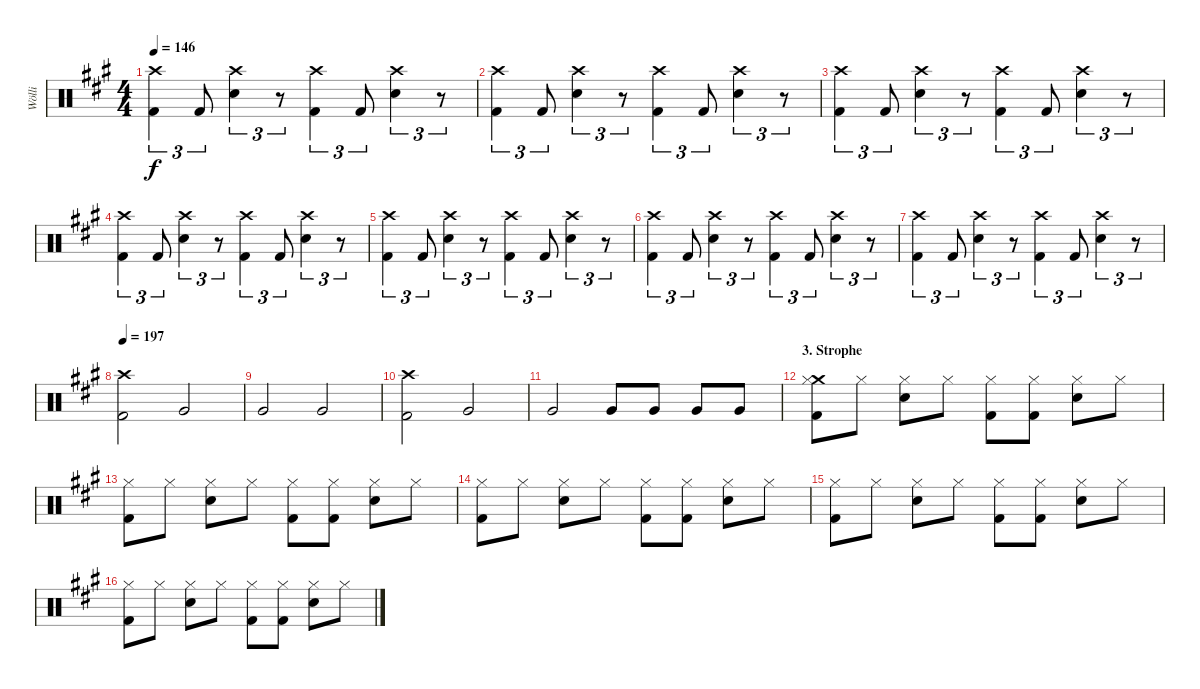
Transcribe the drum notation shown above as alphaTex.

\track ("Wölli" "Wölli") {instrument percussion}
\staff {score}
\articulation defaults
\ts (4 4)
\tempo 146
\clef neutral
\ks a
("Crash high (hit)" "Kick (hit) 2").4{tu (3 2) dy f} "Kick (hit) 2".8{tu (3 2)} ("Crash high (hit)" "Snare (hit) 2").4{tu (3 2)} r.8{tu (3 2)} ("Crash high (hit)" "Kick (hit) 2").4{tu (3 2)} "Kick (hit) 2".8{tu (3 2)} ("Crash high (hit)" "Snare (hit) 2").4{tu (3 2)} r.8{tu (3 2)} |
("Crash high (hit)" "Kick (hit) 2").4{tu (3 2)} "Kick (hit) 2".8{tu (3 2)} ("Crash high (hit)" "Snare (hit) 2").4{tu (3 2)} r.8{tu (3 2)} ("Crash high (hit)" "Kick (hit) 2").4{tu (3 2)} "Kick (hit) 2".8{tu (3 2)} ("Crash high (hit)" "Snare (hit) 2").4{tu (3 2)} r.8{tu (3 2)} |
("Crash high (hit)" "Kick (hit) 2").4{tu (3 2)} "Kick (hit) 2".8{tu (3 2)} ("Crash high (hit)" "Snare (hit) 2").4{tu (3 2)} r.8{tu (3 2)} ("Crash high (hit)" "Kick (hit) 2").4{tu (3 2)} "Kick (hit) 2".8{tu (3 2)} ("Crash high (hit)" "Snare (hit) 2").4{tu (3 2)} r.8{tu (3 2)} |
("Crash high (hit)" "Kick (hit) 2").4{tu (3 2)} "Kick (hit) 2".8{tu (3 2)} ("Crash high (hit)" "Snare (hit) 2").4{tu (3 2)} r.8{tu (3 2)} ("Crash high (hit)" "Kick (hit) 2").4{tu (3 2)} "Kick (hit) 2".8{tu (3 2)} ("Crash high (hit)" "Snare (hit) 2").4{tu (3 2)} r.8{tu (3 2)} |
("Crash high (hit)" "Kick (hit) 2").4{tu (3 2)} "Kick (hit) 2".8{tu (3 2)} ("Crash high (hit)" "Snare (hit) 2").4{tu (3 2)} r.8{tu (3 2)} ("Crash high (hit)" "Kick (hit) 2").4{tu (3 2)} "Kick (hit) 2".8{tu (3 2)} ("Crash high (hit)" "Snare (hit) 2").4{tu (3 2)} r.8{tu (3 2)} |
("Crash high (hit)" "Kick (hit) 2").4{tu (3 2)} "Kick (hit) 2".8{tu (3 2)} ("Crash high (hit)" "Snare (hit) 2").4{tu (3 2)} r.8{tu (3 2)} ("Crash high (hit)" "Kick (hit) 2").4{tu (3 2)} "Kick (hit) 2".8{tu (3 2)} ("Crash high (hit)" "Snare (hit) 2").4{tu (3 2)} r.8{tu (3 2)} |
("Crash high (hit)" "Kick (hit) 2").4{tu (3 2)} "Kick (hit) 2".8{tu (3 2)} ("Crash high (hit)" "Snare (hit) 2").4{tu (3 2)} r.8{tu (3 2)} ("Crash high (hit)" "Kick (hit) 2").4{tu (3 2)} "Kick (hit) 2".8{tu (3 2)} ("Crash high (hit)" "Snare (hit) 2").4{tu (3 2)} r.8{tu (3 2)} |
\tempo 197
("Crash high (hit)" "Kick (hit) 2").2 "Very Low Tom (hit)".2 |
"Very Low Tom (hit)".2 "Very Low Tom (hit)".2 |
("Crash high (hit)" "Kick (hit) 2").2 "Very Low Tom (hit)".2 |
"Very Low Tom (hit)".2 "Very Low Tom (hit)".8 "Very Low Tom (hit)".8 "Very Low Tom (hit)".8 "Very Low Tom (hit)".8 |
\section ("" "3. Strophe")
("Crash medium (hit)" "Hi-Hat (closed)" "Kick (hit) 2").8 "Hi-Hat (closed)".8 ("Hi-Hat (closed)" "Snare (hit) 2").8 "Hi-Hat (closed)".8 ("Hi-Hat (closed)" "Kick (hit) 2").8 ("Hi-Hat (closed)" "Kick (hit) 2").8 ("Hi-Hat (closed)" "Snare (hit) 2").8 "Hi-Hat (closed)".8 |
("Hi-Hat (closed)" "Kick (hit) 2").8 "Hi-Hat (closed)".8 ("Hi-Hat (closed)" "Snare (hit) 2").8 "Hi-Hat (closed)".8 ("Hi-Hat (closed)" "Kick (hit) 2").8 ("Hi-Hat (closed)" "Kick (hit) 2").8 ("Hi-Hat (closed)" "Snare (hit) 2").8 "Hi-Hat (closed)".8 |
("Hi-Hat (closed)" "Kick (hit) 2").8 "Hi-Hat (closed)".8 ("Hi-Hat (closed)" "Snare (hit) 2").8 "Hi-Hat (closed)".8 ("Hi-Hat (closed)" "Kick (hit) 2").8 ("Hi-Hat (closed)" "Kick (hit) 2").8 ("Hi-Hat (closed)" "Snare (hit) 2").8 "Hi-Hat (closed)".8 |
("Hi-Hat (closed)" "Kick (hit) 2").8 "Hi-Hat (closed)".8 ("Hi-Hat (closed)" "Snare (hit) 2").8 "Hi-Hat (closed)".8 ("Hi-Hat (closed)" "Kick (hit) 2").8 ("Hi-Hat (closed)" "Kick (hit) 2").8 ("Hi-Hat (closed)" "Snare (hit) 2").8 "Hi-Hat (closed)".8 |
("Hi-Hat (closed)" "Kick (hit) 2").8 "Hi-Hat (closed)".8 ("Hi-Hat (closed)" "Snare (hit) 2").8 "Hi-Hat (closed)".8 ("Hi-Hat (closed)" "Kick (hit) 2").8 ("Hi-Hat (closed)" "Kick (hit) 2").8 ("Hi-Hat (closed)" "Snare (hit) 2").8 "Hi-Hat (closed)".8
